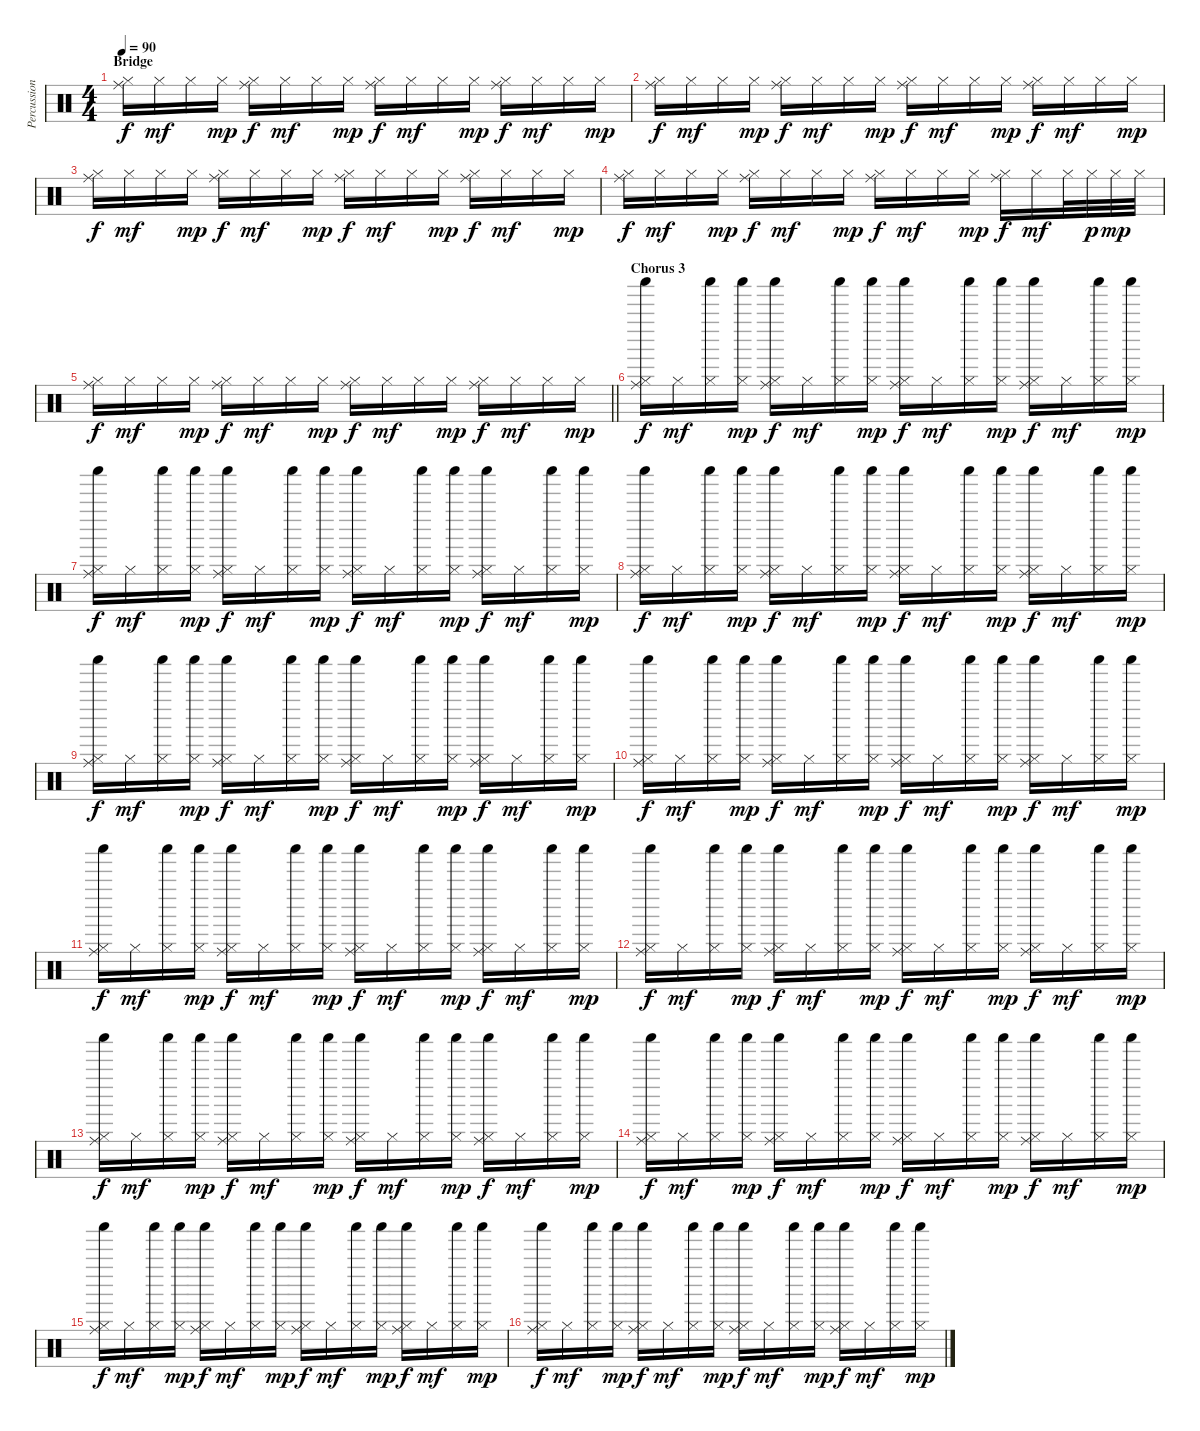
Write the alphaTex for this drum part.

\track ("Percussion (Chris Maitland)" "Percussion") {instrument percussion}
\staff {score}
\articulation defaults
\ts (4 4)
\section ("" "Bridge")
\tempo 90
\clef neutral
\ks c
("Ride (middle)" "Hi-Hat (closed)").16{dy f} "Hi-Hat (closed)".16{dy mf} "Hi-Hat (closed)".16 "Hi-Hat (closed)".16{dy mp} ("Ride (middle)" "Hi-Hat (closed)").16{dy f} "Hi-Hat (closed)".16{dy mf} "Hi-Hat (closed)".16 "Hi-Hat (closed)".16{dy mp} ("Ride (middle)" "Hi-Hat (closed)").16{dy f} "Hi-Hat (closed)".16{dy mf} "Hi-Hat (closed)".16 "Hi-Hat (closed)".16{dy mp} ("Ride (middle)" "Hi-Hat (closed)").16{dy f} "Hi-Hat (closed)".16{dy mf} "Hi-Hat (closed)".16 "Hi-Hat (closed)".16{dy mp} |
("Ride (middle)" "Hi-Hat (closed)").16{dy f} "Hi-Hat (closed)".16{dy mf} "Hi-Hat (closed)".16 "Hi-Hat (closed)".16{dy mp} ("Ride (middle)" "Hi-Hat (closed)").16{dy f} "Hi-Hat (closed)".16{dy mf} "Hi-Hat (closed)".16 "Hi-Hat (closed)".16{dy mp} ("Ride (middle)" "Hi-Hat (closed)").16{dy f} "Hi-Hat (closed)".16{dy mf} "Hi-Hat (closed)".16 "Hi-Hat (closed)".16{dy mp} ("Ride (middle)" "Hi-Hat (closed)").16{dy f} "Hi-Hat (closed)".16{dy mf} "Hi-Hat (closed)".16 "Hi-Hat (closed)".16{dy mp} |
("Ride (middle)" "Hi-Hat (closed)").16{dy f} "Hi-Hat (closed)".16{dy mf} "Hi-Hat (closed)".16 "Hi-Hat (closed)".16{dy mp} ("Ride (middle)" "Hi-Hat (closed)").16{dy f} "Hi-Hat (closed)".16{dy mf} "Hi-Hat (closed)".16 "Hi-Hat (closed)".16{dy mp} ("Ride (middle)" "Hi-Hat (closed)").16{dy f} "Hi-Hat (closed)".16{dy mf} "Hi-Hat (closed)".16 "Hi-Hat (closed)".16{dy mp} ("Ride (middle)" "Hi-Hat (closed)").16{dy f} "Hi-Hat (closed)".16{dy mf} "Hi-Hat (closed)".16 "Hi-Hat (closed)".16{dy mp} |
("Ride (middle)" "Hi-Hat (closed)").16{dy f} "Hi-Hat (closed)".16{dy mf} "Hi-Hat (closed)".16 "Hi-Hat (closed)".16{dy mp} ("Ride (middle)" "Hi-Hat (closed)").16{dy f} "Hi-Hat (closed)".16{dy mf} "Hi-Hat (closed)".16 "Hi-Hat (closed)".16{dy mp} ("Ride (middle)" "Hi-Hat (closed)").16{dy f} "Hi-Hat (closed)".16{dy mf} "Hi-Hat (closed)".16 "Hi-Hat (closed)".16{dy mp} ("Ride (middle)" "Hi-Hat (closed)").16{dy f} "Hi-Hat (closed)".16{dy mf} "Hi-Hat (closed)".32 "Hi-Hat (closed)".32{dy p} "Hi-Hat (closed)".32{dy mp} "Hi-Hat (closed)".32 |
\barLineRight lightlight
("Ride (middle)" "Hi-Hat (closed)").16{dy f} "Hi-Hat (closed)".16{dy mf} "Hi-Hat (closed)".16 "Hi-Hat (closed)".16{dy mp} ("Ride (middle)" "Hi-Hat (closed)").16{dy f} "Hi-Hat (closed)".16{dy mf} "Hi-Hat (closed)".16 "Hi-Hat (closed)".16{dy mp} ("Ride (middle)" "Hi-Hat (closed)").16{dy f} "Hi-Hat (closed)".16{dy mf} "Hi-Hat (closed)".16 "Hi-Hat (closed)".16{dy mp} ("Ride (middle)" "Hi-Hat (closed)").16{dy f} "Hi-Hat (closed)".16{dy mf} "Hi-Hat (closed)".16 "Hi-Hat (closed)".16{dy mp} |
\section ("" "Chorus 3")
("Ride (middle)" "Shaker (hit)" "Hi-Hat (closed)").16{dy f} "Hi-Hat (closed)".16{dy mf} ("Shaker (hit)" "Hi-Hat (closed)").16 ("Shaker (hit)" "Hi-Hat (closed)").16{dy mp} ("Ride (middle)" "Shaker (hit)" "Hi-Hat (closed)").16{dy f} "Hi-Hat (closed)".16{dy mf} ("Shaker (hit)" "Hi-Hat (closed)").16 ("Shaker (hit)" "Hi-Hat (closed)").16{dy mp} ("Ride (middle)" "Shaker (hit)" "Hi-Hat (closed)").16{dy f} "Hi-Hat (closed)".16{dy mf} ("Shaker (hit)" "Hi-Hat (closed)").16 ("Shaker (hit)" "Hi-Hat (closed)").16{dy mp} ("Ride (middle)" "Shaker (hit)" "Hi-Hat (closed)").16{dy f} "Hi-Hat (closed)".16{dy mf} ("Shaker (hit)" "Hi-Hat (closed)").16 ("Shaker (hit)" "Hi-Hat (closed)").16{dy mp} |
("Ride (middle)" "Shaker (hit)" "Hi-Hat (closed)").16{dy f} "Hi-Hat (closed)".16{dy mf} ("Shaker (hit)" "Hi-Hat (closed)").16 ("Shaker (hit)" "Hi-Hat (closed)").16{dy mp} ("Ride (middle)" "Shaker (hit)" "Hi-Hat (closed)").16{dy f} "Hi-Hat (closed)".16{dy mf} ("Shaker (hit)" "Hi-Hat (closed)").16 ("Shaker (hit)" "Hi-Hat (closed)").16{dy mp} ("Ride (middle)" "Shaker (hit)" "Hi-Hat (closed)").16{dy f} "Hi-Hat (closed)".16{dy mf} ("Shaker (hit)" "Hi-Hat (closed)").16 ("Shaker (hit)" "Hi-Hat (closed)").16{dy mp} ("Ride (middle)" "Shaker (hit)" "Hi-Hat (closed)").16{dy f} "Hi-Hat (closed)".16{dy mf} ("Shaker (hit)" "Hi-Hat (closed)").16 ("Shaker (hit)" "Hi-Hat (closed)").16{dy mp} |
("Ride (middle)" "Shaker (hit)" "Hi-Hat (closed)").16{dy f} "Hi-Hat (closed)".16{dy mf} ("Shaker (hit)" "Hi-Hat (closed)").16 ("Shaker (hit)" "Hi-Hat (closed)").16{dy mp} ("Ride (middle)" "Shaker (hit)" "Hi-Hat (closed)").16{dy f} "Hi-Hat (closed)".16{dy mf} ("Shaker (hit)" "Hi-Hat (closed)").16 ("Shaker (hit)" "Hi-Hat (closed)").16{dy mp} ("Ride (middle)" "Shaker (hit)" "Hi-Hat (closed)").16{dy f} "Hi-Hat (closed)".16{dy mf} ("Shaker (hit)" "Hi-Hat (closed)").16 ("Shaker (hit)" "Hi-Hat (closed)").16{dy mp} ("Ride (middle)" "Shaker (hit)" "Hi-Hat (closed)").16{dy f} "Hi-Hat (closed)".16{dy mf} ("Shaker (hit)" "Hi-Hat (closed)").16 ("Shaker (hit)" "Hi-Hat (closed)").16{dy mp} |
("Ride (middle)" "Shaker (hit)" "Hi-Hat (closed)").16{dy f} "Hi-Hat (closed)".16{dy mf} ("Shaker (hit)" "Hi-Hat (closed)").16 ("Shaker (hit)" "Hi-Hat (closed)").16{dy mp} ("Ride (middle)" "Shaker (hit)" "Hi-Hat (closed)").16{dy f} "Hi-Hat (closed)".16{dy mf} ("Shaker (hit)" "Hi-Hat (closed)").16 ("Shaker (hit)" "Hi-Hat (closed)").16{dy mp} ("Ride (middle)" "Shaker (hit)" "Hi-Hat (closed)").16{dy f} "Hi-Hat (closed)".16{dy mf} ("Shaker (hit)" "Hi-Hat (closed)").16 ("Shaker (hit)" "Hi-Hat (closed)").16{dy mp} ("Ride (middle)" "Shaker (hit)" "Hi-Hat (closed)").16{dy f} "Hi-Hat (closed)".16{dy mf} ("Shaker (hit)" "Hi-Hat (closed)").16 ("Shaker (hit)" "Hi-Hat (closed)").16{dy mp} |
("Ride (middle)" "Shaker (hit)" "Hi-Hat (closed)").16{dy f} "Hi-Hat (closed)".16{dy mf} ("Shaker (hit)" "Hi-Hat (closed)").16 ("Shaker (hit)" "Hi-Hat (closed)").16{dy mp} ("Ride (middle)" "Shaker (hit)" "Hi-Hat (closed)").16{dy f} "Hi-Hat (closed)".16{dy mf} ("Shaker (hit)" "Hi-Hat (closed)").16 ("Shaker (hit)" "Hi-Hat (closed)").16{dy mp} ("Ride (middle)" "Shaker (hit)" "Hi-Hat (closed)").16{dy f} "Hi-Hat (closed)".16{dy mf} ("Shaker (hit)" "Hi-Hat (closed)").16 ("Shaker (hit)" "Hi-Hat (closed)").16{dy mp} ("Ride (middle)" "Shaker (hit)" "Hi-Hat (closed)").16{dy f} "Hi-Hat (closed)".16{dy mf} ("Shaker (hit)" "Hi-Hat (closed)").16 ("Shaker (hit)" "Hi-Hat (closed)").16{dy mp} |
("Ride (middle)" "Shaker (hit)" "Hi-Hat (closed)").16{dy f} "Hi-Hat (closed)".16{dy mf} ("Shaker (hit)" "Hi-Hat (closed)").16 ("Shaker (hit)" "Hi-Hat (closed)").16{dy mp} ("Ride (middle)" "Shaker (hit)" "Hi-Hat (closed)").16{dy f} "Hi-Hat (closed)".16{dy mf} ("Shaker (hit)" "Hi-Hat (closed)").16 ("Shaker (hit)" "Hi-Hat (closed)").16{dy mp} ("Ride (middle)" "Shaker (hit)" "Hi-Hat (closed)").16{dy f} "Hi-Hat (closed)".16{dy mf} ("Shaker (hit)" "Hi-Hat (closed)").16 ("Shaker (hit)" "Hi-Hat (closed)").16{dy mp} ("Ride (middle)" "Shaker (hit)" "Hi-Hat (closed)").16{dy f} "Hi-Hat (closed)".16{dy mf} ("Shaker (hit)" "Hi-Hat (closed)").16 ("Shaker (hit)" "Hi-Hat (closed)").16{dy mp} |
("Ride (middle)" "Shaker (hit)" "Hi-Hat (closed)").16{dy f} "Hi-Hat (closed)".16{dy mf} ("Shaker (hit)" "Hi-Hat (closed)").16 ("Shaker (hit)" "Hi-Hat (closed)").16{dy mp} ("Ride (middle)" "Shaker (hit)" "Hi-Hat (closed)").16{dy f} "Hi-Hat (closed)".16{dy mf} ("Shaker (hit)" "Hi-Hat (closed)").16 ("Shaker (hit)" "Hi-Hat (closed)").16{dy mp} ("Ride (middle)" "Shaker (hit)" "Hi-Hat (closed)").16{dy f} "Hi-Hat (closed)".16{dy mf} ("Shaker (hit)" "Hi-Hat (closed)").16 ("Shaker (hit)" "Hi-Hat (closed)").16{dy mp} ("Ride (middle)" "Shaker (hit)" "Hi-Hat (closed)").16{dy f} "Hi-Hat (closed)".16{dy mf} ("Shaker (hit)" "Hi-Hat (closed)").16 ("Shaker (hit)" "Hi-Hat (closed)").16{dy mp} |
("Ride (middle)" "Shaker (hit)" "Hi-Hat (closed)").16{dy f} "Hi-Hat (closed)".16{dy mf} ("Shaker (hit)" "Hi-Hat (closed)").16 ("Shaker (hit)" "Hi-Hat (closed)").16{dy mp} ("Ride (middle)" "Shaker (hit)" "Hi-Hat (closed)").16{dy f} "Hi-Hat (closed)".16{dy mf} ("Shaker (hit)" "Hi-Hat (closed)").16 ("Shaker (hit)" "Hi-Hat (closed)").16{dy mp} ("Ride (middle)" "Shaker (hit)" "Hi-Hat (closed)").16{dy f} "Hi-Hat (closed)".16{dy mf} ("Shaker (hit)" "Hi-Hat (closed)").16 ("Shaker (hit)" "Hi-Hat (closed)").16{dy mp} ("Ride (middle)" "Shaker (hit)" "Hi-Hat (closed)").16{dy f} "Hi-Hat (closed)".16{dy mf} ("Shaker (hit)" "Hi-Hat (closed)").16 ("Shaker (hit)" "Hi-Hat (closed)").16{dy mp} |
("Ride (middle)" "Shaker (hit)" "Hi-Hat (closed)").16{dy f} "Hi-Hat (closed)".16{dy mf} ("Shaker (hit)" "Hi-Hat (closed)").16 ("Shaker (hit)" "Hi-Hat (closed)").16{dy mp} ("Ride (middle)" "Shaker (hit)" "Hi-Hat (closed)").16{dy f} "Hi-Hat (closed)".16{dy mf} ("Shaker (hit)" "Hi-Hat (closed)").16 ("Shaker (hit)" "Hi-Hat (closed)").16{dy mp} ("Ride (middle)" "Shaker (hit)" "Hi-Hat (closed)").16{dy f} "Hi-Hat (closed)".16{dy mf} ("Shaker (hit)" "Hi-Hat (closed)").16 ("Shaker (hit)" "Hi-Hat (closed)").16{dy mp} ("Ride (middle)" "Shaker (hit)" "Hi-Hat (closed)").16{dy f} "Hi-Hat (closed)".16{dy mf} ("Shaker (hit)" "Hi-Hat (closed)").16 ("Shaker (hit)" "Hi-Hat (closed)").16{dy mp} |
("Ride (middle)" "Shaker (hit)" "Hi-Hat (closed)").16{dy f} "Hi-Hat (closed)".16{dy mf} ("Shaker (hit)" "Hi-Hat (closed)").16 ("Shaker (hit)" "Hi-Hat (closed)").16{dy mp} ("Ride (middle)" "Shaker (hit)" "Hi-Hat (closed)").16{dy f} "Hi-Hat (closed)".16{dy mf} ("Shaker (hit)" "Hi-Hat (closed)").16 ("Shaker (hit)" "Hi-Hat (closed)").16{dy mp} ("Ride (middle)" "Shaker (hit)" "Hi-Hat (closed)").16{dy f} "Hi-Hat (closed)".16{dy mf} ("Shaker (hit)" "Hi-Hat (closed)").16 ("Shaker (hit)" "Hi-Hat (closed)").16{dy mp} ("Ride (middle)" "Shaker (hit)" "Hi-Hat (closed)").16{dy f} "Hi-Hat (closed)".16{dy mf} ("Shaker (hit)" "Hi-Hat (closed)").16 ("Shaker (hit)" "Hi-Hat (closed)").16{dy mp} |
("Ride (middle)" "Shaker (hit)" "Hi-Hat (closed)").16{dy f} "Hi-Hat (closed)".16{dy mf} ("Shaker (hit)" "Hi-Hat (closed)").16 ("Shaker (hit)" "Hi-Hat (closed)").16{dy mp} ("Ride (middle)" "Shaker (hit)" "Hi-Hat (closed)").16{dy f} "Hi-Hat (closed)".16{dy mf} ("Shaker (hit)" "Hi-Hat (closed)").16 ("Shaker (hit)" "Hi-Hat (closed)").16{dy mp} ("Ride (middle)" "Shaker (hit)" "Hi-Hat (closed)").16{dy f} "Hi-Hat (closed)".16{dy mf} ("Shaker (hit)" "Hi-Hat (closed)").16 ("Shaker (hit)" "Hi-Hat (closed)").16{dy mp} ("Ride (middle)" "Shaker (hit)" "Hi-Hat (closed)").16{dy f} "Hi-Hat (closed)".16{dy mf} ("Shaker (hit)" "Hi-Hat (closed)").16 ("Shaker (hit)" "Hi-Hat (closed)").16{dy mp}
